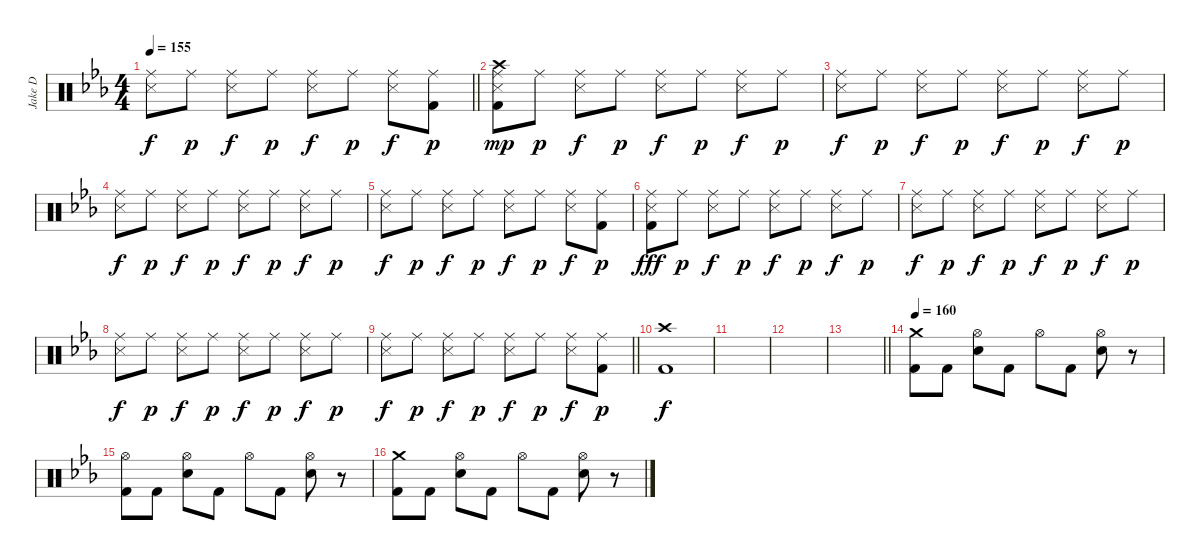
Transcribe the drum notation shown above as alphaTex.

\track ("Jake D" "Jake D") {instrument percussion}
\staff {score}
\articulation defaults
\ts (4 4)
\tempo 155
\clef neutral
\barLineRight lightlight
\ks cminor
("Ride (middle)" "Snare (side stick) 3").8{dy f} "Ride (middle)".8{dy p} ("Ride (middle)" "Snare (side stick) 3").8{dy f} "Ride (middle)".8{dy p} ("Ride (middle)" "Snare (side stick) 3").8{dy f} "Ride (middle)".8{dy p} ("Ride (middle)" "Snare (side stick) 3").8{dy f} ("Ride (middle)" "Kick (hit) 2").8{dy p} |
("Crash high (hit)" "Ride (middle)" "Snare (side stick) 3" "Kick (hit) 2").8{dy mp} "Ride (middle)".8{dy p} ("Ride (middle)" "Snare (side stick) 3").8{dy f} "Ride (middle)".8{dy p} ("Ride (middle)" "Snare (side stick) 3").8{dy f} "Ride (middle)".8{dy p} ("Ride (middle)" "Snare (side stick) 3").8{dy f} "Ride (middle)".8{dy p} |
("Ride (middle)" "Snare (side stick) 3").8{dy f} "Ride (middle)".8{dy p} ("Ride (middle)" "Snare (side stick) 3").8{dy f} "Ride (middle)".8{dy p} ("Ride (middle)" "Snare (side stick) 3").8{dy f} "Ride (middle)".8{dy p} ("Ride (middle)" "Snare (side stick) 3").8{dy f} "Ride (middle)".8{dy p} |
("Ride (middle)" "Snare (side stick) 3").8{dy f} "Ride (middle)".8{dy p} ("Ride (middle)" "Snare (side stick) 3").8{dy f} "Ride (middle)".8{dy p} ("Ride (middle)" "Snare (side stick) 3").8{dy f} "Ride (middle)".8{dy p} ("Ride (middle)" "Snare (side stick) 3").8{dy f} "Ride (middle)".8{dy p} |
("Ride (middle)" "Snare (side stick) 3").8{dy f} "Ride (middle)".8{dy p} ("Ride (middle)" "Snare (side stick) 3").8{dy f} "Ride (middle)".8{dy p} ("Ride (middle)" "Snare (side stick) 3").8{dy f} "Ride (middle)".8{dy p} ("Ride (middle)" "Snare (side stick) 3").8{dy f} ("Ride (middle)" "Kick (hit) 2").8{dy p} |
("Ride (middle)" "Snare (side stick) 3" "Kick (hit) 2").8{dy fff} "Ride (middle)".8{dy p} ("Ride (middle)" "Snare (side stick) 3").8{dy f} "Ride (middle)".8{dy p} ("Ride (middle)" "Snare (side stick) 3").8{dy f} "Ride (middle)".8{dy p} ("Ride (middle)" "Snare (side stick) 3").8{dy f} "Ride (middle)".8{dy p} |
("Ride (middle)" "Snare (side stick) 3").8{dy f} "Ride (middle)".8{dy p} ("Ride (middle)" "Snare (side stick) 3").8{dy f} "Ride (middle)".8{dy p} ("Ride (middle)" "Snare (side stick) 3").8{dy f} "Ride (middle)".8{dy p} ("Ride (middle)" "Snare (side stick) 3").8{dy f} "Ride (middle)".8{dy p} |
("Ride (middle)" "Snare (side stick) 3").8{dy f} "Ride (middle)".8{dy p} ("Ride (middle)" "Snare (side stick) 3").8{dy f} "Ride (middle)".8{dy p} ("Ride (middle)" "Snare (side stick) 3").8{dy f} "Ride (middle)".8{dy p} ("Ride (middle)" "Snare (side stick) 3").8{dy f} "Ride (middle)".8{dy p} |
\barLineRight lightlight
("Ride (middle)" "Snare (side stick) 3").8{dy f} "Ride (middle)".8{dy p} ("Ride (middle)" "Snare (side stick) 3").8{dy f} "Ride (middle)".8{dy p} ("Ride (middle)" "Snare (side stick) 3").8{dy f} "Ride (middle)".8{dy p} ("Ride (middle)" "Snare (side stick) 3").8{dy f} ("Ride (middle)" "Kick (hit) 2").8{dy p} |
("Crash high (hit)" "Kick (hit) 2").1{dy f} |
|
|
\barLineRight lightlight
|
\tempo 160
("Crash medium (hit)" "Kick (hit) 2").8 "Kick (hit) 2".8 ("Hi-Hat (open)" "Electric Snare (hit)").8 "Kick (hit) 2".8 "Hi-Hat (open)".8 "Kick (hit) 2".8 ("Hi-Hat (open)" "Electric Snare (hit)").8 r.8 |
("Hi-Hat (open)" "Kick (hit) 2").8 "Kick (hit) 2".8 ("Hi-Hat (open)" "Electric Snare (hit)").8 "Kick (hit) 2".8 "Hi-Hat (open)".8 "Kick (hit) 2".8 ("Hi-Hat (open)" "Electric Snare (hit)").8 r.8 |
("Crash medium (hit)" "Kick (hit) 2").8 "Kick (hit) 2".8 ("Hi-Hat (open)" "Electric Snare (hit)").8 "Kick (hit) 2".8 "Hi-Hat (open)".8 "Kick (hit) 2".8 ("Hi-Hat (open)" "Electric Snare (hit)").8 r.8
